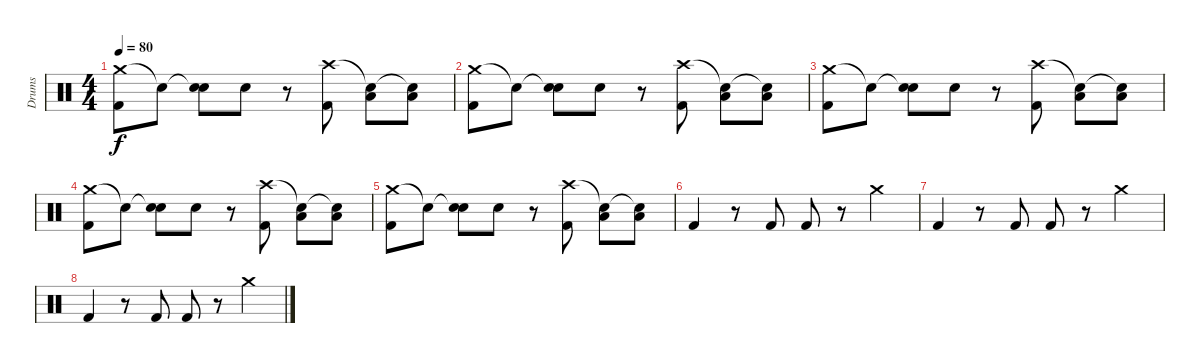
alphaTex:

\track ("Drums" "Drums") {instrument percussion}
\staff {score}
\articulation defaults
\ts (4 4)
\tempo 80
\clef neutral
\ks c
("Crash medium (hit)" "Kick (hit) 2").8{dy f} "Snare (hit)"{t}.8 ("Snare (hit)"{t} "Snare (hit) 2").8 "Snare (hit) 2".8 r.8 ("Crash high (hit)" "Kick (hit) 2").8 ("Snare (hit)"{t} "Low Floor Tom (hit)").8 ("Snare (hit)"{t} "Low Tom (hit)").8 |
("Crash medium (hit)" "Kick (hit) 2").8 "Snare (hit)"{t}.8 ("Snare (hit)"{t} "Snare (hit) 2").8 "Snare (hit) 2".8 r.8 ("Crash high (hit)" "Kick (hit) 2").8 ("Snare (hit)"{t} "Low Floor Tom (hit)").8 ("Snare (hit)"{t} "Low Tom (hit)").8 |
("Crash medium (hit)" "Kick (hit) 2").8 "Snare (hit)"{t}.8 ("Snare (hit)"{t} "Snare (hit) 2").8 "Snare (hit) 2".8 r.8 ("Crash high (hit)" "Kick (hit) 2").8 ("Snare (hit)"{t} "Low Floor Tom (hit)").8 ("Snare (hit)"{t} "Low Tom (hit)").8 |
("Crash medium (hit)" "Kick (hit) 2").8 "Snare (hit)"{t}.8 ("Snare (hit)"{t} "Snare (hit) 2").8 "Snare (hit) 2".8 r.8 ("Crash high (hit)" "Kick (hit) 2").8 ("Snare (hit)"{t} "Low Floor Tom (hit)").8 ("Snare (hit)"{t} "Low Tom (hit)").8 |
("Crash medium (hit)" "Kick (hit) 2").8 "Snare (hit)"{t}.8 ("Snare (hit)"{t} "Snare (hit) 2").8 "Snare (hit) 2".8 r.8 ("Crash high (hit)" "Kick (hit) 2").8 ("Snare (hit)"{t} "Low Floor Tom (hit)").8 ("Snare (hit)"{t} "Low Tom (hit)").8 |
"Kick (hit) 2".4{volume 6} r.8 "Kick (hit) 2".8 "Kick (hit) 2".8 r.8 "Crash medium (hit)".4 |
"Kick (hit) 2".4 r.8 "Kick (hit) 2".8 "Kick (hit) 2".8 r.8 "Crash medium (hit)".4 |
"Kick (hit) 2".4 r.8 "Kick (hit) 2".8 "Kick (hit) 2".8 r.8 "Crash medium (hit)".4
